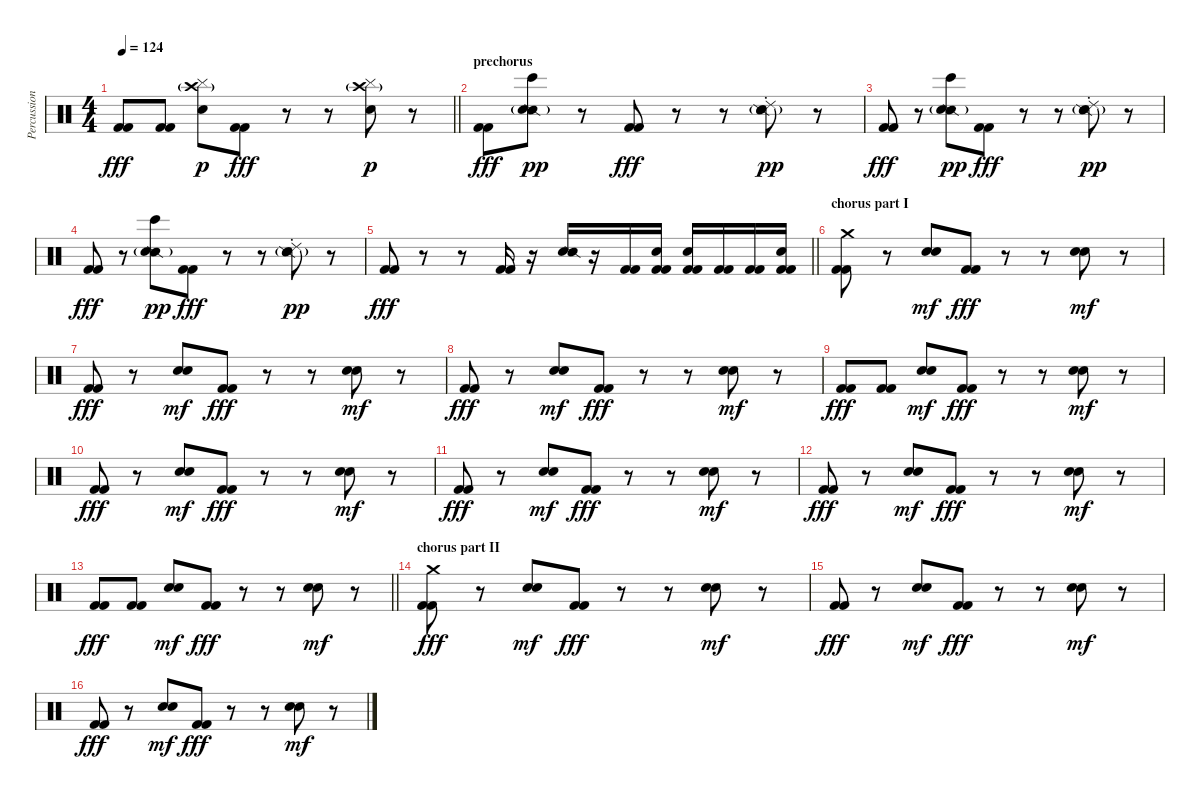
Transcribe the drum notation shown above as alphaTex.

\track ("Percussions" "Percussion") {instrument percussion}
\staff {score}
\articulation defaults
\ts (4 4)
\tempo 124
\clef neutral
\barLineRight lightlight
\ks c
("Kick (hit) 2" "Kick (hit) 2").8{dy fff} ("Kick (hit) 2" "Kick (hit) 2").8 ("Crash high (hit)"{g} "Hand Clap (hit)" "Cymbal (hit)").8{dy p} ("Kick (hit) 2" "Kick (hit) 2").8{dy fff} r.8 r.8 ("Crash high (hit)"{g} "Hand Clap (hit)" "Cymbal (hit)").8{dy p} r.8 |
\section ("" "prechorus")
("Kick (hit) 2" "Kick (hit) 2").8{dy fff} ("Bongo High (hit)" "Snare (side stick) 2"{g} "Snare (hit) 2"{g}).8{dy pp} r.8 ("Kick (hit) 2" "Kick (hit) 2").8{dy fff} r.8 r.8 ("Ride (choke) 2" "Snare (side stick) 2"{g} "Snare (hit) 2"{g}).8{dy pp} r.8 |
("Kick (hit) 2" "Kick (hit) 2").8{dy fff} r.8 ("Bongo High (hit)" "Snare (side stick) 2"{g} "Snare (hit) 2"{g}).8{dy pp} ("Kick (hit) 2" "Kick (hit) 2").8{dy fff} r.8 r.8 ("Ride (choke) 2" "Snare (side stick) 2"{g} "Snare (hit) 2"{g}).8{dy pp} r.8 |
("Kick (hit) 2" "Kick (hit) 2").8{dy fff} r.8 ("Bongo High (hit)" "Snare (side stick) 2"{g} "Snare (hit) 2"{g}).8{dy pp} ("Kick (hit) 2" "Kick (hit) 2").8{dy fff} r.8 r.8 ("Ride (choke) 2" "Snare (side stick) 2"{g} "Snare (hit) 2"{g}).8{dy pp} r.8 |
\barLineRight lightlight
("Kick (hit) 2" "Kick (hit) 2").8{dy fff} r.8 r.8 ("Kick (hit) 2" "Kick (hit) 2").16 r.16 ("Snare (hit) 2" "Snare (side stick) 2").16 r.16 ("Kick (hit) 2" "Kick (hit) 2").16 ("Snare (hit) 2" "Kick (hit) 2" "Kick (hit) 2").16 ("Snare (hit) 2" "Kick (hit) 2" "Kick (hit) 2").16 ("Kick (hit) 2" "Kick (hit) 2").16 ("Kick (hit) 2" "Kick (hit) 2").16 ("Snare (hit) 2" "Kick (hit) 2" "Kick (hit) 2").16 |
\section ("" "chorus part I")
("Crash medium (hit)" "Kick (hit) 2" "Kick (hit) 2").8 r.8 ("Hand Clap (hit)" "Electric Snare (hit)").8{dy mf} ("Kick (hit) 2" "Kick (hit) 2").8{dy fff} r.8 r.8 ("Hand Clap (hit)" "Electric Snare (hit)").8{dy mf} r.8 |
("Kick (hit) 2" "Kick (hit) 2").8{dy fff} r.8 ("Hand Clap (hit)" "Electric Snare (hit)").8{dy mf} ("Kick (hit) 2" "Kick (hit) 2").8{dy fff} r.8 r.8 ("Hand Clap (hit)" "Electric Snare (hit)").8{dy mf} r.8 |
("Kick (hit) 2" "Kick (hit) 2").8{dy fff} r.8 ("Hand Clap (hit)" "Electric Snare (hit)").8{dy mf} ("Kick (hit) 2" "Kick (hit) 2").8{dy fff} r.8 r.8 ("Hand Clap (hit)" "Electric Snare (hit)").8{dy mf} r.8 |
("Kick (hit) 2" "Kick (hit) 2").8{dy fff} ("Kick (hit) 2" "Kick (hit) 2").8 ("Hand Clap (hit)" "Electric Snare (hit)").8{dy mf} ("Kick (hit) 2" "Kick (hit) 2").8{dy fff} r.8 r.8 ("Hand Clap (hit)" "Electric Snare (hit)").8{dy mf} r.8 |
("Kick (hit) 2" "Kick (hit) 2").8{dy fff} r.8 ("Hand Clap (hit)" "Electric Snare (hit)").8{dy mf} ("Kick (hit) 2" "Kick (hit) 2").8{dy fff} r.8 r.8 ("Hand Clap (hit)" "Electric Snare (hit)").8{dy mf} r.8 |
("Kick (hit) 2" "Kick (hit) 2").8{dy fff} r.8 ("Hand Clap (hit)" "Electric Snare (hit)").8{dy mf} ("Kick (hit) 2" "Kick (hit) 2").8{dy fff} r.8 r.8 ("Hand Clap (hit)" "Electric Snare (hit)").8{dy mf} r.8 |
("Kick (hit) 2" "Kick (hit) 2").8{dy fff} r.8 ("Hand Clap (hit)" "Electric Snare (hit)").8{dy mf} ("Kick (hit) 2" "Kick (hit) 2").8{dy fff} r.8 r.8 ("Hand Clap (hit)" "Electric Snare (hit)").8{dy mf} r.8 |
\barLineRight lightlight
("Kick (hit) 2" "Kick (hit) 2").8{dy fff} ("Kick (hit) 2" "Kick (hit) 2").8 ("Hand Clap (hit)" "Electric Snare (hit)").8{dy mf} ("Kick (hit) 2" "Kick (hit) 2").8{dy fff} r.8 r.8 ("Hand Clap (hit)" "Electric Snare (hit)").8{dy mf} r.8 |
\section ("" "chorus part II")
("Crash medium (hit)" "Kick (hit) 2" "Kick (hit) 2").8{dy fff} r.8 ("Hand Clap (hit)" "Electric Snare (hit)").8{dy mf} ("Kick (hit) 2" "Kick (hit) 2").8{dy fff} r.8 r.8 ("Hand Clap (hit)" "Electric Snare (hit)").8{dy mf} r.8 |
("Kick (hit) 2" "Kick (hit) 2").8{dy fff} r.8 ("Hand Clap (hit)" "Electric Snare (hit)").8{dy mf} ("Kick (hit) 2" "Kick (hit) 2").8{dy fff} r.8 r.8 ("Hand Clap (hit)" "Electric Snare (hit)").8{dy mf} r.8 |
("Kick (hit) 2" "Kick (hit) 2").8{dy fff} r.8 ("Hand Clap (hit)" "Electric Snare (hit)").8{dy mf} ("Kick (hit) 2" "Kick (hit) 2").8{dy fff} r.8 r.8 ("Hand Clap (hit)" "Electric Snare (hit)").8{dy mf} r.8
